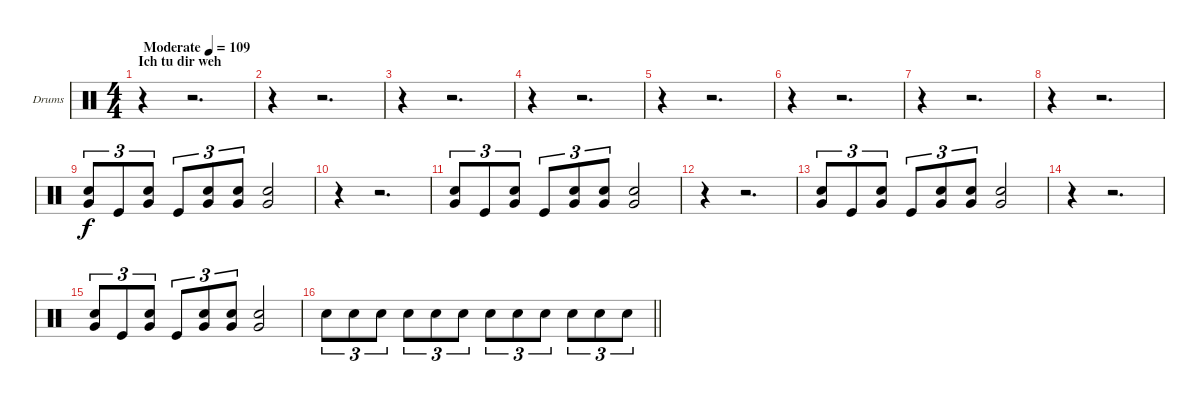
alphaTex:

\bracketExtendMode groupsimilarinstruments
\firstSystemTrackNameOrientation horizontal
\otherSystemsTrackNameOrientation horizontal
\track ("Drumkit (Christoph)" "Drums") {instrument percussion}
\staff {score}
\articulation defaults
\ts (4 4)
\beaming (8 2 2 2 2)
\section ("" "Ich tu dir weh")
\tempo (109 "Moderate")
\clef neutral
\ks c
r.4{dy f} r.2{d} |
r.4 r.2{d} |
r.4 r.2{d} |
r.4 r.2{d} |
r.4 r.2{d} |
r.4 r.2{d} |
r.4 r.2{d} |
r.4 r.2{d} |
("Very Low Tom (hit)" "Snare (hit) 2").8{tu (3 2)} "Kick (hit)".8{tu (3 2)} ("Very Low Tom (hit)" "Snare (hit) 2").8{tu (3 2)} "Kick (hit)".8{tu (3 2)} ("Very Low Tom (hit)" "Snare (hit) 2").8{tu (3 2)} ("Very Low Tom (hit)" "Snare (hit) 2").8{tu (3 2)} ("Very Low Tom (hit)" "Snare (hit) 2").2 |
r.4 r.2{d} |
("Very Low Tom (hit)" "Snare (hit) 2").8{tu (3 2)} "Kick (hit)".8{tu (3 2)} ("Very Low Tom (hit)" "Snare (hit) 2").8{tu (3 2)} "Kick (hit)".8{tu (3 2)} ("Very Low Tom (hit)" "Snare (hit) 2").8{tu (3 2)} ("Very Low Tom (hit)" "Snare (hit) 2").8{tu (3 2)} ("Very Low Tom (hit)" "Snare (hit) 2").2 |
r.4 r.2{d} |
("Very Low Tom (hit)" "Snare (hit) 2").8{tu (3 2)} "Kick (hit)".8{tu (3 2)} ("Very Low Tom (hit)" "Snare (hit) 2").8{tu (3 2)} "Kick (hit)".8{tu (3 2)} ("Very Low Tom (hit)" "Snare (hit) 2").8{tu (3 2)} ("Very Low Tom (hit)" "Snare (hit) 2").8{tu (3 2)} ("Very Low Tom (hit)" "Snare (hit) 2").2 |
r.4 r.2{d} |
("Very Low Tom (hit)" "Snare (hit) 2").8{tu (3 2)} "Kick (hit)".8{tu (3 2)} ("Very Low Tom (hit)" "Snare (hit) 2").8{tu (3 2)} "Kick (hit)".8{tu (3 2)} ("Very Low Tom (hit)" "Snare (hit) 2").8{tu (3 2)} ("Very Low Tom (hit)" "Snare (hit) 2").8{tu (3 2)} ("Very Low Tom (hit)" "Snare (hit) 2").2 |
\barLineRight lightlight "Snare (hit) 2".8{tu (3 2)} "Snare (hit) 2".8{tu (3 2)} "Snare (hit) 2".8{tu (3 2)} "Snare (hit) 2".8{tu (3 2)} "Snare (hit) 2".8{tu (3 2)} "Snare (hit) 2".8{tu (3 2)} "Snare (hit) 2".8{tu (3 2)} "Snare (hit) 2".8{tu (3 2)} "Snare (hit) 2".8{tu (3 2)} "Snare (hit) 2".8{tu (3 2)} "Snare (hit) 2".8{tu (3 2)} "Snare (hit) 2".8{tu (3 2)}
